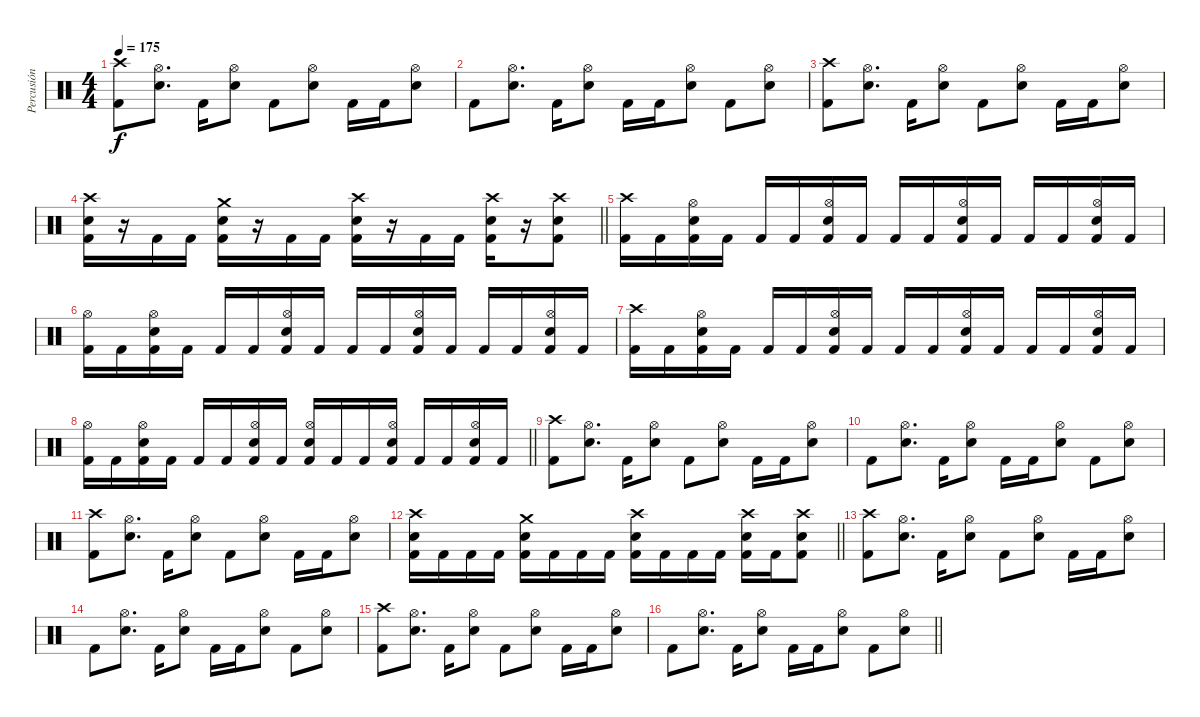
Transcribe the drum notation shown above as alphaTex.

\track ("Percusión" "Percusión") {instrument percussion}
\staff {score}
\articulation defaults
\ts (4 4)
\tempo 175
\clef neutral
\ks c
("Crash high (hit)" "Kick (hit) 2").8{dy f} ("Hi-Hat (open)" "Electric Snare (hit)").8{d} "Kick (hit) 2".16 ("Hi-Hat (open)" "Electric Snare (hit)").8 "Kick (hit) 2".8 ("Hi-Hat (open)" "Electric Snare (hit)").8 "Kick (hit) 2".16 "Kick (hit) 2".16 ("Hi-Hat (open)" "Electric Snare (hit)").8 |
"Kick (hit) 2".8 ("Hi-Hat (open)" "Electric Snare (hit)").8{d} "Kick (hit) 2".16 ("Hi-Hat (open)" "Electric Snare (hit)").8 "Kick (hit) 2".16 "Kick (hit) 2".16 ("Hi-Hat (open)" "Electric Snare (hit)").8 "Kick (hit) 2".8 ("Hi-Hat (open)" "Electric Snare (hit)").8 |
("Crash high (hit)" "Kick (hit) 2").8 ("Hi-Hat (open)" "Electric Snare (hit)").8{d} "Kick (hit) 2".16 ("Hi-Hat (open)" "Electric Snare (hit)").8 "Kick (hit) 2".8 ("Hi-Hat (open)" "Electric Snare (hit)").8 "Kick (hit) 2".16 "Kick (hit) 2".16 ("Hi-Hat (open)" "Electric Snare (hit)").8 |
\barLineRight lightlight
("Crash high (hit)" "Electric Snare (hit)" "Kick (hit) 2").16 r.16 "Kick (hit) 2".16 "Kick (hit) 2".16 ("Crash medium (hit)" "Electric Snare (hit)" "Kick (hit) 2").16 r.16 "Kick (hit) 2".16 "Kick (hit) 2".16 ("Crash high (hit)" "Electric Snare (hit)" "Kick (hit) 2").16 r.16 "Kick (hit) 2".16 "Kick (hit) 2".16 ("Crash high (hit)" "Electric Snare (hit)" "Kick (hit) 2").16 r.16 ("Crash high (hit)" "Electric Snare (hit)" "Kick (hit) 2").8 |
("Crash high (hit)" "Kick (hit) 2").16 "Kick (hit) 2".16 ("Hi-Hat (open)" "Electric Snare (hit)" "Kick (hit) 2").16 "Kick (hit) 2".16 "Kick (hit) 2".16 "Kick (hit) 2".16 ("Hi-Hat (open)" "Electric Snare (hit)" "Kick (hit) 2").16 "Kick (hit) 2".16 "Kick (hit) 2".16 "Kick (hit) 2".16 ("Hi-Hat (open)" "Electric Snare (hit)" "Kick (hit) 2").16 "Kick (hit) 2".16 "Kick (hit) 2".16 "Kick (hit) 2".16 ("Hi-Hat (open)" "Electric Snare (hit)" "Kick (hit) 2").16 "Kick (hit) 2".16 |
("Hi-Hat (open)" "Kick (hit) 2").16 "Kick (hit) 2".16 ("Hi-Hat (open)" "Electric Snare (hit)" "Kick (hit) 2").16 "Kick (hit) 2".16 "Kick (hit) 2".16 "Kick (hit) 2".16 ("Hi-Hat (open)" "Electric Snare (hit)" "Kick (hit) 2").16 "Kick (hit) 2".16 "Kick (hit) 2".16 "Kick (hit) 2".16 ("Hi-Hat (open)" "Electric Snare (hit)" "Kick (hit) 2").16 "Kick (hit) 2".16 "Kick (hit) 2".16 "Kick (hit) 2".16 ("Hi-Hat (open)" "Electric Snare (hit)" "Kick (hit) 2").16 "Kick (hit) 2".16 |
("Crash high (hit)" "Kick (hit) 2").16 "Kick (hit) 2".16 ("Hi-Hat (open)" "Electric Snare (hit)" "Kick (hit) 2").16 "Kick (hit) 2".16 "Kick (hit) 2".16 "Kick (hit) 2".16 ("Hi-Hat (open)" "Electric Snare (hit)" "Kick (hit) 2").16 "Kick (hit) 2".16 "Kick (hit) 2".16 "Kick (hit) 2".16 ("Hi-Hat (open)" "Electric Snare (hit)" "Kick (hit) 2").16 "Kick (hit) 2".16 "Kick (hit) 2".16 "Kick (hit) 2".16 ("Hi-Hat (open)" "Electric Snare (hit)" "Kick (hit) 2").16 "Kick (hit) 2".16 |
\barLineRight lightlight
("Hi-Hat (open)" "Kick (hit) 2").16 "Kick (hit) 2".16 ("Hi-Hat (open)" "Electric Snare (hit)" "Kick (hit) 2").16 "Kick (hit) 2".16 "Kick (hit) 2".16 "Kick (hit) 2".16 ("Hi-Hat (open)" "Electric Snare (hit)" "Kick (hit) 2").16 "Kick (hit) 2".16 ("Hi-Hat (open)" "Electric Snare (hit)" "Kick (hit) 2").16 "Kick (hit) 2".16 "Kick (hit) 2".16 ("Hi-Hat (open)" "Electric Snare (hit)" "Kick (hit) 2").16 "Kick (hit) 2".16 "Kick (hit) 2".16 ("Hi-Hat (open)" "Electric Snare (hit)" "Kick (hit) 2").16 "Kick (hit) 2".16 |
("Crash high (hit)" "Kick (hit) 2").8 ("Hi-Hat (open)" "Electric Snare (hit)").8{d} "Kick (hit) 2".16 ("Hi-Hat (open)" "Electric Snare (hit)").8 "Kick (hit) 2".8 ("Hi-Hat (open)" "Electric Snare (hit)").8 "Kick (hit) 2".16 "Kick (hit) 2".16 ("Hi-Hat (open)" "Electric Snare (hit)").8 |
"Kick (hit) 2".8 ("Hi-Hat (open)" "Electric Snare (hit)").8{d} "Kick (hit) 2".16 ("Hi-Hat (open)" "Electric Snare (hit)").8 "Kick (hit) 2".16 "Kick (hit) 2".16 ("Hi-Hat (open)" "Electric Snare (hit)").8 "Kick (hit) 2".8 ("Hi-Hat (open)" "Electric Snare (hit)").8 |
("Crash high (hit)" "Kick (hit) 2").8 ("Hi-Hat (open)" "Electric Snare (hit)").8{d} "Kick (hit) 2".16 ("Hi-Hat (open)" "Electric Snare (hit)").8 "Kick (hit) 2".8 ("Hi-Hat (open)" "Electric Snare (hit)").8 "Kick (hit) 2".16 "Kick (hit) 2".16 ("Hi-Hat (open)" "Electric Snare (hit)").8 |
\barLineRight lightlight
("Crash high (hit)" "Electric Snare (hit)" "Kick (hit) 2").16 "Kick (hit) 2".16 "Kick (hit) 2".16 "Kick (hit) 2".16 ("Crash medium (hit)" "Electric Snare (hit)" "Kick (hit) 2").16 "Kick (hit) 2".16 "Kick (hit) 2".16 "Kick (hit) 2".16 ("Crash high (hit)" "Electric Snare (hit)" "Kick (hit) 2").16 "Kick (hit) 2".16 "Kick (hit) 2".16 "Kick (hit) 2".16 ("Crash high (hit)" "Electric Snare (hit)" "Kick (hit) 2").16 "Kick (hit) 2".16 ("Crash high (hit)" "Electric Snare (hit)" "Kick (hit) 2").8 |
("Crash high (hit)" "Kick (hit) 2").8 ("Hi-Hat (open)" "Electric Snare (hit)").8{d} "Kick (hit) 2".16 ("Hi-Hat (open)" "Electric Snare (hit)").8 "Kick (hit) 2".8 ("Hi-Hat (open)" "Electric Snare (hit)").8 "Kick (hit) 2".16 "Kick (hit) 2".16 ("Hi-Hat (open)" "Electric Snare (hit)").8 |
"Kick (hit) 2".8 ("Hi-Hat (open)" "Electric Snare (hit)").8{d} "Kick (hit) 2".16 ("Hi-Hat (open)" "Electric Snare (hit)").8 "Kick (hit) 2".16 "Kick (hit) 2".16 ("Hi-Hat (open)" "Electric Snare (hit)").8 "Kick (hit) 2".8 ("Hi-Hat (open)" "Electric Snare (hit)").8 |
("Crash high (hit)" "Kick (hit) 2").8 ("Hi-Hat (open)" "Electric Snare (hit)").8{d} "Kick (hit) 2".16 ("Hi-Hat (open)" "Electric Snare (hit)").8 "Kick (hit) 2".8 ("Hi-Hat (open)" "Electric Snare (hit)").8 "Kick (hit) 2".16 "Kick (hit) 2".16 ("Hi-Hat (open)" "Electric Snare (hit)").8 |
\barLineRight lightlight "Kick (hit) 2".8
("Hi-Hat (open)" "Electric Snare (hit)").8{d} "Kick (hit) 2".16 ("Hi-Hat (open)" "Electric Snare (hit)").8 "Kick (hit) 2".16 "Kick (hit) 2".16 ("Hi-Hat (open)" "Electric Snare (hit)").8 "Kick (hit) 2".8 ("Hi-Hat (open)" "Electric Snare (hit)").8
